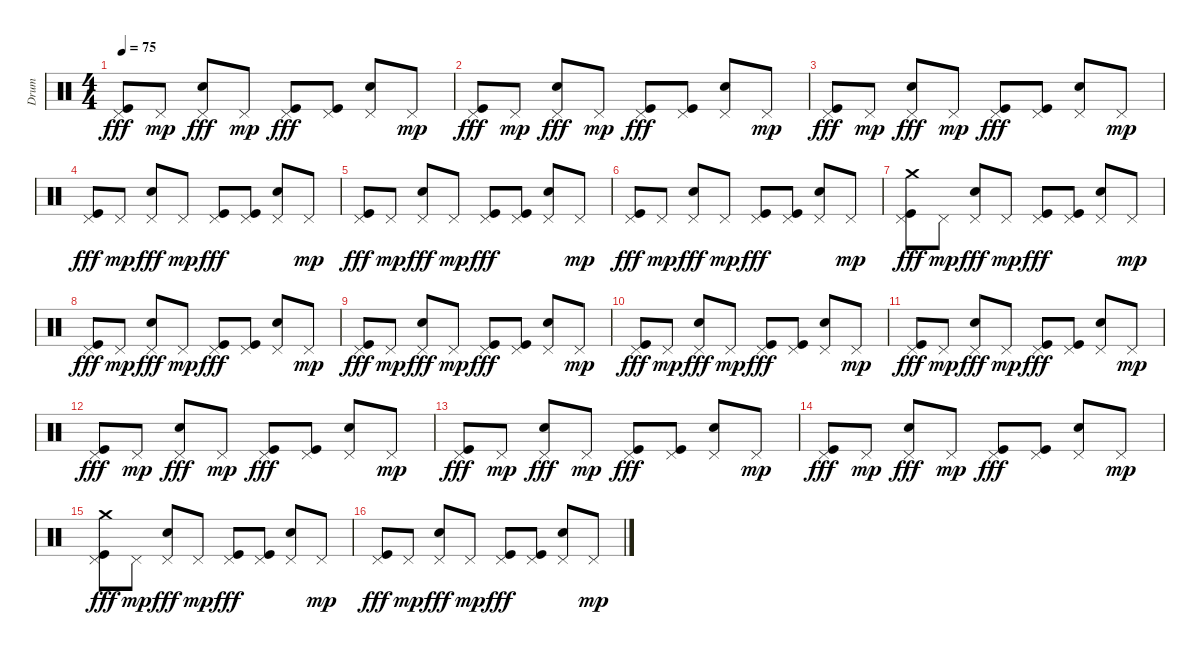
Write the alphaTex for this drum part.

\track ("Drum" "Drum") {instrument percussion}
\staff {score}
\articulation defaults
\ts (4 4)
\tempo 75
\clef neutral
\ks c
("Pedal Hi-Hat (hit)" "Kick (hit)").8{dy fff} "Pedal Hi-Hat (hit)".8{dy mp} ("Pedal Hi-Hat (hit)" "Snare (hit) 2").8{dy fff} "Pedal Hi-Hat (hit)".8{dy mp} ("Pedal Hi-Hat (hit)" "Kick (hit)").8{dy fff} ("Pedal Hi-Hat (hit)" "Kick (hit)").8 ("Pedal Hi-Hat (hit)" "Snare (hit) 2").8 "Pedal Hi-Hat (hit)".8{dy mp} |
("Pedal Hi-Hat (hit)" "Kick (hit)").8{dy fff} "Pedal Hi-Hat (hit)".8{dy mp} ("Pedal Hi-Hat (hit)" "Snare (hit) 2").8{dy fff} "Pedal Hi-Hat (hit)".8{dy mp} ("Pedal Hi-Hat (hit)" "Kick (hit)").8{dy fff} ("Pedal Hi-Hat (hit)" "Kick (hit)").8 ("Pedal Hi-Hat (hit)" "Snare (hit) 2").8 "Pedal Hi-Hat (hit)".8{dy mp} |
("Pedal Hi-Hat (hit)" "Kick (hit)").8{dy fff} "Pedal Hi-Hat (hit)".8{dy mp} ("Pedal Hi-Hat (hit)" "Snare (hit) 2").8{dy fff} "Pedal Hi-Hat (hit)".8{dy mp} ("Pedal Hi-Hat (hit)" "Kick (hit)").8{dy fff} ("Pedal Hi-Hat (hit)" "Kick (hit)").8 ("Pedal Hi-Hat (hit)" "Snare (hit) 2").8 "Pedal Hi-Hat (hit)".8{dy mp} |
("Pedal Hi-Hat (hit)" "Kick (hit)").8{dy fff} "Pedal Hi-Hat (hit)".8{dy mp} ("Pedal Hi-Hat (hit)" "Snare (hit) 2").8{dy fff} "Pedal Hi-Hat (hit)".8{dy mp} ("Pedal Hi-Hat (hit)" "Kick (hit)").8{dy fff} ("Pedal Hi-Hat (hit)" "Kick (hit)").8 ("Pedal Hi-Hat (hit)" "Snare (hit) 2").8 "Pedal Hi-Hat (hit)".8{dy mp} |
("Pedal Hi-Hat (hit)" "Kick (hit)").8{dy fff} "Pedal Hi-Hat (hit)".8{dy mp} ("Pedal Hi-Hat (hit)" "Snare (hit) 2").8{dy fff} "Pedal Hi-Hat (hit)".8{dy mp} ("Pedal Hi-Hat (hit)" "Kick (hit)").8{dy fff} ("Pedal Hi-Hat (hit)" "Kick (hit)").8 ("Pedal Hi-Hat (hit)" "Snare (hit) 2").8 "Pedal Hi-Hat (hit)".8{dy mp} |
("Pedal Hi-Hat (hit)" "Kick (hit)").8{dy fff} "Pedal Hi-Hat (hit)".8{dy mp} ("Pedal Hi-Hat (hit)" "Snare (hit) 2").8{dy fff} "Pedal Hi-Hat (hit)".8{dy mp} ("Pedal Hi-Hat (hit)" "Kick (hit)").8{dy fff} ("Pedal Hi-Hat (hit)" "Kick (hit)").8 ("Pedal Hi-Hat (hit)" "Snare (hit) 2").8 "Pedal Hi-Hat (hit)".8{dy mp} |
("Pedal Hi-Hat (hit)" "Kick (hit)" "Crash medium (hit)").8{dy fff} "Pedal Hi-Hat (hit)".8{dy mp} ("Pedal Hi-Hat (hit)" "Snare (hit) 2").8{dy fff} "Pedal Hi-Hat (hit)".8{dy mp} ("Pedal Hi-Hat (hit)" "Kick (hit)").8{dy fff} ("Pedal Hi-Hat (hit)" "Kick (hit)").8 ("Pedal Hi-Hat (hit)" "Snare (hit) 2").8 "Pedal Hi-Hat (hit)".8{dy mp} |
("Pedal Hi-Hat (hit)" "Kick (hit)").8{dy fff} "Pedal Hi-Hat (hit)".8{dy mp} ("Pedal Hi-Hat (hit)" "Snare (hit) 2").8{dy fff} "Pedal Hi-Hat (hit)".8{dy mp} ("Pedal Hi-Hat (hit)" "Kick (hit)").8{dy fff} ("Pedal Hi-Hat (hit)" "Kick (hit)").8 ("Pedal Hi-Hat (hit)" "Snare (hit) 2").8 "Pedal Hi-Hat (hit)".8{dy mp} |
("Pedal Hi-Hat (hit)" "Kick (hit)").8{dy fff} "Pedal Hi-Hat (hit)".8{dy mp} ("Pedal Hi-Hat (hit)" "Snare (hit) 2").8{dy fff} "Pedal Hi-Hat (hit)".8{dy mp} ("Pedal Hi-Hat (hit)" "Kick (hit)").8{dy fff} ("Pedal Hi-Hat (hit)" "Kick (hit)").8 ("Pedal Hi-Hat (hit)" "Snare (hit) 2").8 "Pedal Hi-Hat (hit)".8{dy mp} |
("Pedal Hi-Hat (hit)" "Kick (hit)").8{dy fff} "Pedal Hi-Hat (hit)".8{dy mp} ("Pedal Hi-Hat (hit)" "Snare (hit) 2").8{dy fff} "Pedal Hi-Hat (hit)".8{dy mp} ("Pedal Hi-Hat (hit)" "Kick (hit)").8{dy fff} ("Pedal Hi-Hat (hit)" "Kick (hit)").8 ("Pedal Hi-Hat (hit)" "Snare (hit) 2").8 "Pedal Hi-Hat (hit)".8{dy mp} |
("Pedal Hi-Hat (hit)" "Kick (hit)").8{dy fff} "Pedal Hi-Hat (hit)".8{dy mp} ("Pedal Hi-Hat (hit)" "Snare (hit) 2").8{dy fff} "Pedal Hi-Hat (hit)".8{dy mp} ("Pedal Hi-Hat (hit)" "Kick (hit)").8{dy fff} ("Pedal Hi-Hat (hit)" "Kick (hit)").8 ("Pedal Hi-Hat (hit)" "Snare (hit) 2").8 "Pedal Hi-Hat (hit)".8{dy mp} |
("Pedal Hi-Hat (hit)" "Kick (hit)").8{dy fff} "Pedal Hi-Hat (hit)".8{dy mp} ("Pedal Hi-Hat (hit)" "Snare (hit) 2").8{dy fff} "Pedal Hi-Hat (hit)".8{dy mp} ("Pedal Hi-Hat (hit)" "Kick (hit)").8{dy fff} ("Pedal Hi-Hat (hit)" "Kick (hit)").8 ("Pedal Hi-Hat (hit)" "Snare (hit) 2").8 "Pedal Hi-Hat (hit)".8{dy mp} |
("Pedal Hi-Hat (hit)" "Kick (hit)").8{dy fff} "Pedal Hi-Hat (hit)".8{dy mp} ("Pedal Hi-Hat (hit)" "Snare (hit) 2").8{dy fff} "Pedal Hi-Hat (hit)".8{dy mp} ("Pedal Hi-Hat (hit)" "Kick (hit)").8{dy fff} ("Pedal Hi-Hat (hit)" "Kick (hit)").8 ("Pedal Hi-Hat (hit)" "Snare (hit) 2").8 "Pedal Hi-Hat (hit)".8{dy mp} |
("Pedal Hi-Hat (hit)" "Kick (hit)").8{dy fff} "Pedal Hi-Hat (hit)".8{dy mp} ("Pedal Hi-Hat (hit)" "Snare (hit) 2").8{dy fff} "Pedal Hi-Hat (hit)".8{dy mp} ("Pedal Hi-Hat (hit)" "Kick (hit)").8{dy fff} ("Pedal Hi-Hat (hit)" "Kick (hit)").8 ("Pedal Hi-Hat (hit)" "Snare (hit) 2").8 "Pedal Hi-Hat (hit)".8{dy mp} |
("Pedal Hi-Hat (hit)" "Kick (hit)" "Crash medium (hit)").8{dy fff} "Pedal Hi-Hat (hit)".8{dy mp} ("Pedal Hi-Hat (hit)" "Snare (hit) 2").8{dy fff} "Pedal Hi-Hat (hit)".8{dy mp} ("Pedal Hi-Hat (hit)" "Kick (hit)").8{dy fff} ("Pedal Hi-Hat (hit)" "Kick (hit)").8 ("Pedal Hi-Hat (hit)" "Snare (hit) 2").8 "Pedal Hi-Hat (hit)".8{dy mp} |
("Pedal Hi-Hat (hit)" "Kick (hit)").8{dy fff} "Pedal Hi-Hat (hit)".8{dy mp} ("Pedal Hi-Hat (hit)" "Snare (hit) 2").8{dy fff} "Pedal Hi-Hat (hit)".8{dy mp} ("Pedal Hi-Hat (hit)" "Kick (hit)").8{dy fff} ("Pedal Hi-Hat (hit)" "Kick (hit)").8 ("Pedal Hi-Hat (hit)" "Snare (hit) 2").8 "Pedal Hi-Hat (hit)".8{dy mp}
